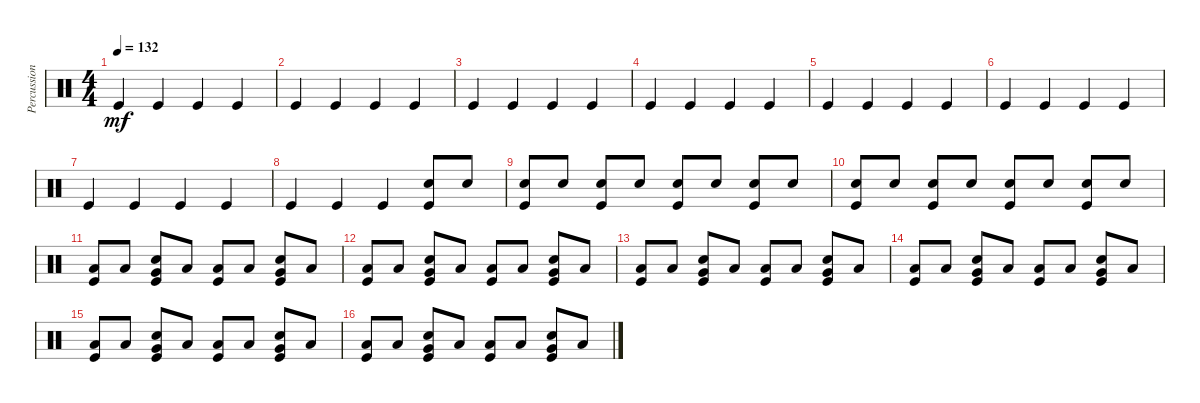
\track ("Percussions" "Percussion") {instrument percussion}
\staff {score}
\articulation defaults
\ts (4 4)
\tempo 132
\clef neutral
\ks c "Kick (hit)".4{dy mf} "Kick (hit)".4 "Kick (hit)".4 "Kick (hit)".4
|
"Kick (hit)".4 "Kick (hit)".4 "Kick (hit)".4 "Kick (hit)".4 |
"Kick (hit)".4 "Kick (hit)".4 "Kick (hit)".4 "Kick (hit)".4 |
"Kick (hit)".4 "Kick (hit)".4 "Kick (hit)".4 "Kick (hit)".4 |
"Kick (hit)".4 "Kick (hit)".4 "Kick (hit)".4 "Kick (hit)".4 |
"Kick (hit)".4 "Kick (hit)".4 "Kick (hit)".4 "Kick (hit)".4 |
"Kick (hit)".4 "Kick (hit)".4 "Kick (hit)".4 "Kick (hit)".4 |
"Kick (hit)".4 "Kick (hit)".4 "Kick (hit)".4 ("Snare (hit) 2" "Kick (hit)").8 "Snare (hit) 2".8 |
("Snare (hit) 2" "Kick (hit)").8 "Snare (hit) 2".8 ("Snare (hit) 2" "Kick (hit)").8 "Snare (hit) 2".8 ("Snare (hit) 2" "Kick (hit)").8 "Snare (hit) 2".8 ("Snare (hit) 2" "Kick (hit)").8 "Snare (hit) 2".8 |
("Snare (hit) 2" "Kick (hit)").8 "Snare (hit) 2".8 ("Snare (hit) 2" "Kick (hit)").8 "Snare (hit) 2".8 ("Snare (hit) 2" "Kick (hit)").8 "Snare (hit) 2".8 ("Snare (hit) 2" "Kick (hit)").8 "Snare (hit) 2".8 |
("Low Floor Tom (hit)" "Kick (hit)").8 "Low Floor Tom (hit)".8 ("Very Low Tom (hit)" "Snare (hit) 2" "Kick (hit)").8 "Low Floor Tom (hit)".8 ("Low Floor Tom (hit)" "Kick (hit)").8 "Low Floor Tom (hit)".8 ("Very Low Tom (hit)" "Snare (hit) 2" "Kick (hit)").8 "Low Floor Tom (hit)".8 |
("Low Floor Tom (hit)" "Kick (hit)").8 "Low Floor Tom (hit)".8 ("Very Low Tom (hit)" "Snare (hit) 2" "Kick (hit)").8 "Low Floor Tom (hit)".8 ("Low Floor Tom (hit)" "Kick (hit)").8 "Low Floor Tom (hit)".8 ("Very Low Tom (hit)" "Snare (hit) 2" "Kick (hit)").8 "Low Floor Tom (hit)".8 |
("Low Floor Tom (hit)" "Kick (hit)").8 "Low Floor Tom (hit)".8 ("Very Low Tom (hit)" "Snare (hit) 2" "Kick (hit)").8 "Low Floor Tom (hit)".8 ("Low Floor Tom (hit)" "Kick (hit)").8 "Low Floor Tom (hit)".8 ("Very Low Tom (hit)" "Snare (hit) 2" "Kick (hit)").8 "Low Floor Tom (hit)".8 |
("Low Floor Tom (hit)" "Kick (hit)").8 "Low Floor Tom (hit)".8 ("Very Low Tom (hit)" "Snare (hit) 2" "Kick (hit)").8 "Low Floor Tom (hit)".8 ("Low Floor Tom (hit)" "Kick (hit)").8 "Low Floor Tom (hit)".8 ("Very Low Tom (hit)" "Snare (hit) 2" "Kick (hit)").8 "Low Floor Tom (hit)".8 |
("Low Floor Tom (hit)" "Kick (hit)").8 "Low Floor Tom (hit)".8 ("Very Low Tom (hit)" "Snare (hit) 2" "Kick (hit)").8 "Low Floor Tom (hit)".8 ("Low Floor Tom (hit)" "Kick (hit)").8 "Low Floor Tom (hit)".8 ("Very Low Tom (hit)" "Snare (hit) 2" "Kick (hit)").8 "Low Floor Tom (hit)".8 |
("Low Floor Tom (hit)" "Kick (hit)").8 "Low Floor Tom (hit)".8 ("Very Low Tom (hit)" "Snare (hit) 2" "Kick (hit)").8 "Low Floor Tom (hit)".8 ("Low Floor Tom (hit)" "Kick (hit)").8 "Low Floor Tom (hit)".8 ("Very Low Tom (hit)" "Snare (hit) 2" "Kick (hit)").8 "Low Floor Tom (hit)".8
